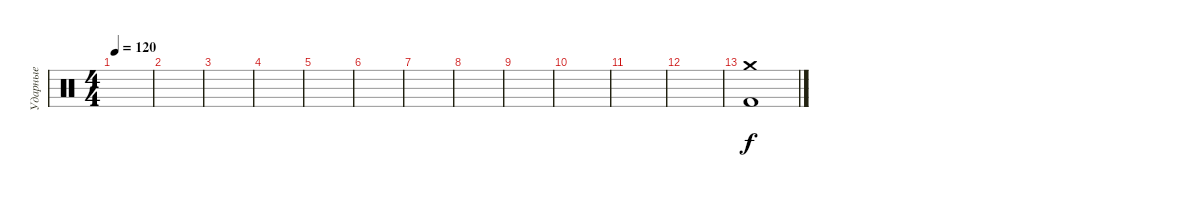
\track ("Ударные" "Ударные") {instrument percussion}
\staff {score}
\articulation defaults
\ts (4 4)
\tempo 120
\clef neutral
\ks c
|
|
|
|
|
|
|
|
|
|
|
|
("Crash medium (hit)" "Kick (hit) 2").1
